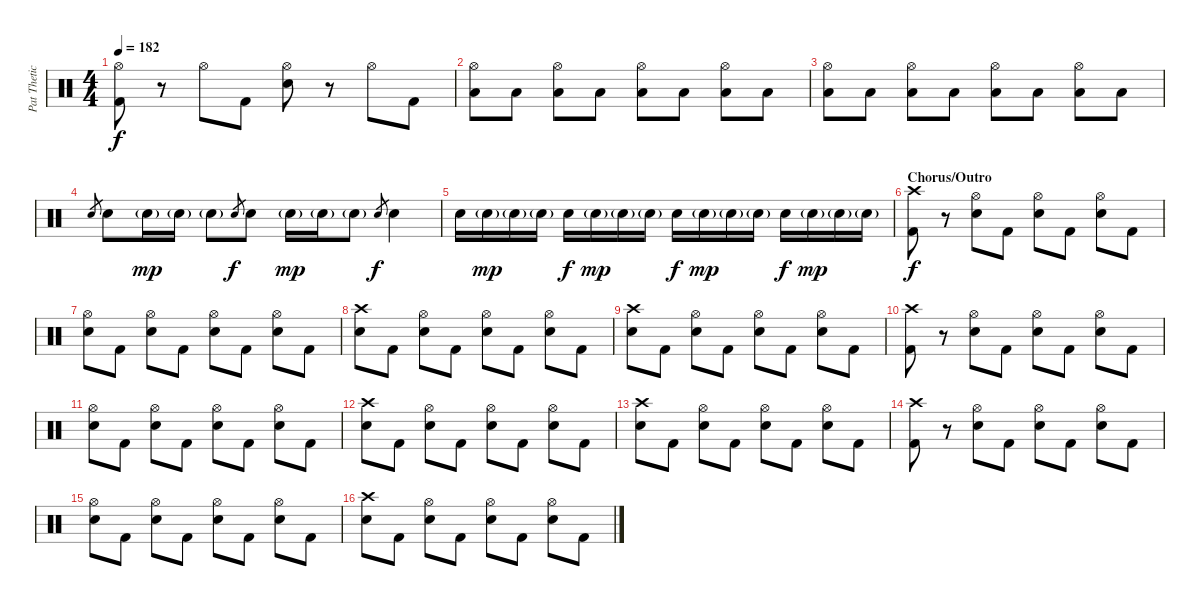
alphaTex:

\track ("Pat Thetic - Drums" "Pat Thetic") {instrument percussion}
\staff {score}
\articulation defaults
\ts (4 4)
\tempo 182
\clef neutral
\ks c
("Hi-Hat (open)" "Kick (hit) 2").8{dy f} r.8 "Hi-Hat (open)".8 "Kick (hit) 2".8 ("Hi-Hat (open)" "Electric Snare (hit)").8 r.8 "Hi-Hat (open)".8 "Kick (hit) 2".8 |
("Hi-Hat (open)" "Low Floor Tom (hit)").8 "Low Floor Tom (hit)".8 ("Hi-Hat (open)" "Low Floor Tom (hit)").8 "Low Floor Tom (hit)".8 ("Hi-Hat (open)" "Low Floor Tom (hit)").8 "Low Floor Tom (hit)".8 ("Hi-Hat (open)" "Low Floor Tom (hit)").8 "Low Floor Tom (hit)".8 |
("Hi-Hat (open)" "Low Floor Tom (hit)").8 "Low Floor Tom (hit)".8 ("Hi-Hat (open)" "Low Floor Tom (hit)").8 "Low Floor Tom (hit)".8 ("Hi-Hat (open)" "Low Floor Tom (hit)").8 "Low Floor Tom (hit)".8 ("Hi-Hat (open)" "Low Floor Tom (hit)").8 "Low Floor Tom (hit)".8 |
"Electric Snare (hit)".8{gr} "Electric Snare (hit)".8 "Snare (hit) 2"{g}.16{dy mp} "Snare (hit) 2"{g}.16 "Snare (hit) 2"{g}.8 "Electric Snare (hit)".8{gr dy f} "Electric Snare (hit)".8 "Snare (hit) 2"{g}.16{dy mp} "Snare (hit) 2"{g}.16 "Snare (hit) 2"{g}.8 "Electric Snare (hit)".8{gr dy f} "Electric Snare (hit)".4 |
"Electric Snare (hit)".16 "Snare (hit) 2"{g}.16{dy mp} "Snare (hit) 2"{g}.16 "Snare (hit) 2"{g}.16 "Electric Snare (hit)".16{dy f} "Snare (hit) 2"{g}.16{dy mp} "Snare (hit) 2"{g}.16 "Snare (hit) 2"{g}.16 "Electric Snare (hit)".16{dy f} "Snare (hit) 2"{g}.16{dy mp} "Snare (hit) 2"{g}.16 "Snare (hit) 2"{g}.16 "Electric Snare (hit)".16{dy f} "Snare (hit) 2"{g}.16{dy mp} "Snare (hit) 2"{g}.16 "Snare (hit) 2"{g}.16 |
\section ("" "Chorus/Outro")
("Crash high (hit)" "Kick (hit) 2").8{dy f} r.8 ("Hi-Hat (open)" "Electric Snare (hit)").8 "Kick (hit) 2".8 ("Hi-Hat (open)" "Electric Snare (hit)").8 "Kick (hit) 2".8 ("Hi-Hat (open)" "Electric Snare (hit)").8 "Kick (hit) 2".8 |
("Hi-Hat (open)" "Electric Snare (hit)").8 "Kick (hit) 2".8 ("Hi-Hat (open)" "Electric Snare (hit)").8 "Kick (hit) 2".8 ("Hi-Hat (open)" "Electric Snare (hit)").8 "Kick (hit) 2".8 ("Hi-Hat (open)" "Electric Snare (hit)").8 "Kick (hit) 2".8 |
("Crash high (hit)" "Electric Snare (hit)").8 "Kick (hit) 2".8 ("Hi-Hat (open)" "Electric Snare (hit)").8 "Kick (hit) 2".8 ("Hi-Hat (open)" "Electric Snare (hit)").8 "Kick (hit) 2".8 ("Hi-Hat (open)" "Electric Snare (hit)").8 "Kick (hit) 2".8 |
("Crash high (hit)" "Electric Snare (hit)").8 "Kick (hit) 2".8 ("Hi-Hat (open)" "Electric Snare (hit)").8 "Kick (hit) 2".8 ("Hi-Hat (open)" "Electric Snare (hit)").8 "Kick (hit) 2".8 ("Hi-Hat (open)" "Electric Snare (hit)").8 "Kick (hit) 2".8 |
("Crash high (hit)" "Kick (hit) 2").8 r.8 ("Hi-Hat (open)" "Electric Snare (hit)").8 "Kick (hit) 2".8 ("Hi-Hat (open)" "Electric Snare (hit)").8 "Kick (hit) 2".8 ("Hi-Hat (open)" "Electric Snare (hit)").8 "Kick (hit) 2".8 |
("Hi-Hat (open)" "Electric Snare (hit)").8 "Kick (hit) 2".8 ("Hi-Hat (open)" "Electric Snare (hit)").8 "Kick (hit) 2".8 ("Hi-Hat (open)" "Electric Snare (hit)").8 "Kick (hit) 2".8 ("Hi-Hat (open)" "Electric Snare (hit)").8 "Kick (hit) 2".8 |
("Crash high (hit)" "Electric Snare (hit)").8 "Kick (hit) 2".8 ("Hi-Hat (open)" "Electric Snare (hit)").8 "Kick (hit) 2".8 ("Hi-Hat (open)" "Electric Snare (hit)").8 "Kick (hit) 2".8 ("Hi-Hat (open)" "Electric Snare (hit)").8 "Kick (hit) 2".8 |
("Crash high (hit)" "Electric Snare (hit)").8 "Kick (hit) 2".8 ("Hi-Hat (open)" "Electric Snare (hit)").8 "Kick (hit) 2".8 ("Hi-Hat (open)" "Electric Snare (hit)").8 "Kick (hit) 2".8 ("Hi-Hat (open)" "Electric Snare (hit)").8 "Kick (hit) 2".8 |
("Crash high (hit)" "Kick (hit) 2").8 r.8 ("Hi-Hat (open)" "Electric Snare (hit)").8 "Kick (hit) 2".8 ("Hi-Hat (open)" "Electric Snare (hit)").8 "Kick (hit) 2".8 ("Hi-Hat (open)" "Electric Snare (hit)").8 "Kick (hit) 2".8 |
("Hi-Hat (open)" "Electric Snare (hit)").8 "Kick (hit) 2".8 ("Hi-Hat (open)" "Electric Snare (hit)").8 "Kick (hit) 2".8 ("Hi-Hat (open)" "Electric Snare (hit)").8 "Kick (hit) 2".8 ("Hi-Hat (open)" "Electric Snare (hit)").8 "Kick (hit) 2".8 |
("Crash high (hit)" "Electric Snare (hit)").8 "Kick (hit) 2".8 ("Hi-Hat (open)" "Electric Snare (hit)").8 "Kick (hit) 2".8 ("Hi-Hat (open)" "Electric Snare (hit)").8 "Kick (hit) 2".8 ("Hi-Hat (open)" "Electric Snare (hit)").8 "Kick (hit) 2".8
